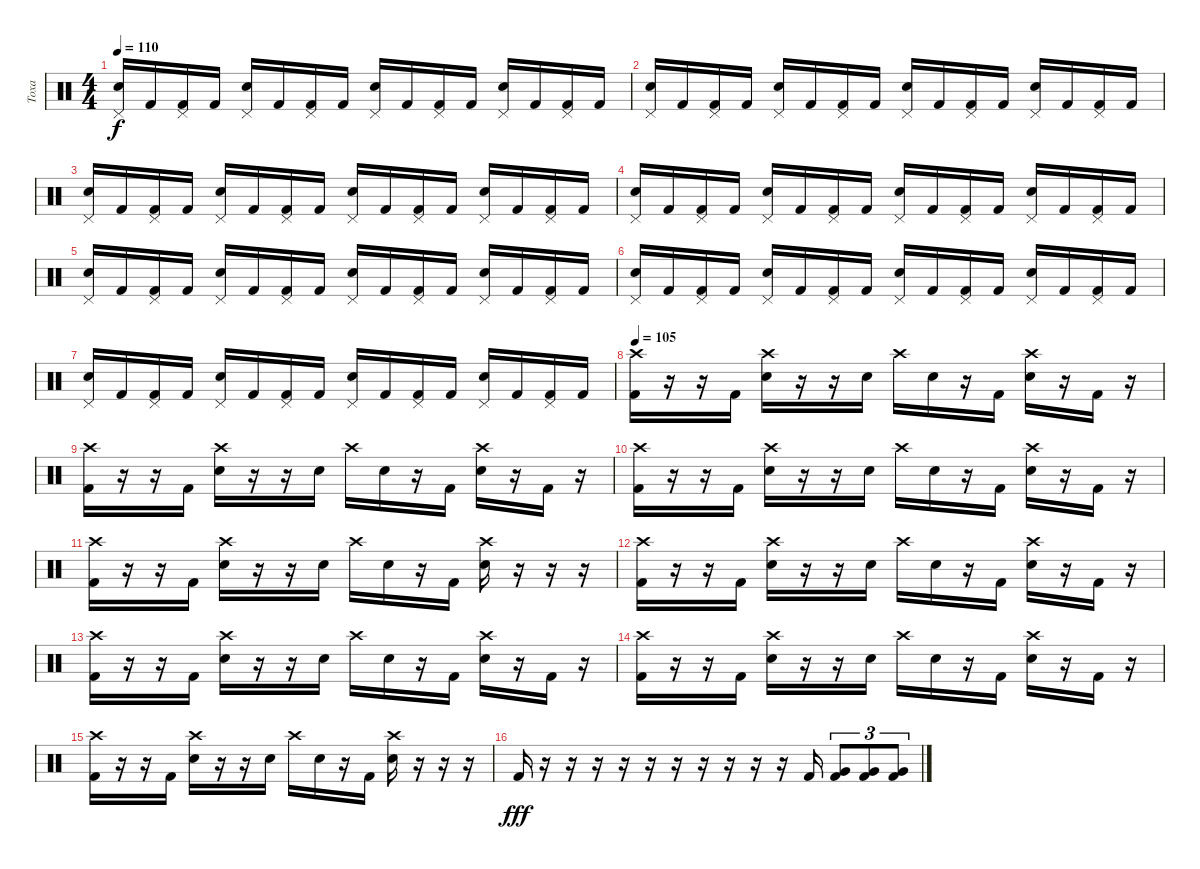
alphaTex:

\track ("Toxa" "Toxa") {instrument percussion}
\staff {score}
\articulation defaults
\ts (4 4)
\tempo 110
\clef neutral
\ks c
("Pedal Hi-Hat (hit)" "Electric Snare (hit)").16{dy f} "Kick (hit) 2".16 ("Pedal Hi-Hat (hit)" "Kick (hit) 2").16 "Kick (hit) 2".16 ("Pedal Hi-Hat (hit)" "Electric Snare (hit)").16 "Kick (hit) 2".16 ("Pedal Hi-Hat (hit)" "Kick (hit) 2").16 "Kick (hit) 2".16 ("Pedal Hi-Hat (hit)" "Electric Snare (hit)").16 "Kick (hit) 2".16 ("Pedal Hi-Hat (hit)" "Kick (hit) 2").16 "Kick (hit) 2".16 ("Pedal Hi-Hat (hit)" "Electric Snare (hit)").16 "Kick (hit) 2".16 ("Pedal Hi-Hat (hit)" "Kick (hit) 2").16 "Kick (hit) 2".16 |
("Pedal Hi-Hat (hit)" "Electric Snare (hit)").16 "Kick (hit) 2".16 ("Pedal Hi-Hat (hit)" "Kick (hit) 2").16 "Kick (hit) 2".16 ("Pedal Hi-Hat (hit)" "Electric Snare (hit)").16 "Kick (hit) 2".16 ("Pedal Hi-Hat (hit)" "Kick (hit) 2").16 "Kick (hit) 2".16 ("Pedal Hi-Hat (hit)" "Electric Snare (hit)").16 "Kick (hit) 2".16 ("Pedal Hi-Hat (hit)" "Kick (hit) 2").16 "Kick (hit) 2".16 ("Pedal Hi-Hat (hit)" "Electric Snare (hit)").16 "Kick (hit) 2".16 ("Pedal Hi-Hat (hit)" "Kick (hit) 2").16 "Kick (hit) 2".16 |
("Pedal Hi-Hat (hit)" "Electric Snare (hit)").16 "Kick (hit) 2".16 ("Pedal Hi-Hat (hit)" "Kick (hit) 2").16 "Kick (hit) 2".16 ("Pedal Hi-Hat (hit)" "Electric Snare (hit)").16 "Kick (hit) 2".16 ("Pedal Hi-Hat (hit)" "Kick (hit) 2").16 "Kick (hit) 2".16 ("Pedal Hi-Hat (hit)" "Electric Snare (hit)").16 "Kick (hit) 2".16 ("Pedal Hi-Hat (hit)" "Kick (hit) 2").16 "Kick (hit) 2".16 ("Pedal Hi-Hat (hit)" "Electric Snare (hit)").16 "Kick (hit) 2".16 ("Pedal Hi-Hat (hit)" "Kick (hit) 2").16 "Kick (hit) 2".16 |
("Pedal Hi-Hat (hit)" "Electric Snare (hit)").16 "Kick (hit) 2".16 ("Pedal Hi-Hat (hit)" "Kick (hit) 2").16 "Kick (hit) 2".16 ("Pedal Hi-Hat (hit)" "Electric Snare (hit)").16 "Kick (hit) 2".16 ("Pedal Hi-Hat (hit)" "Kick (hit) 2").16 "Kick (hit) 2".16 ("Pedal Hi-Hat (hit)" "Electric Snare (hit)").16 "Kick (hit) 2".16 ("Pedal Hi-Hat (hit)" "Kick (hit) 2").16 "Kick (hit) 2".16 ("Pedal Hi-Hat (hit)" "Electric Snare (hit)").16 "Kick (hit) 2".16 ("Pedal Hi-Hat (hit)" "Kick (hit) 2").16 "Kick (hit) 2".16 |
("Pedal Hi-Hat (hit)" "Electric Snare (hit)").16 "Kick (hit) 2".16 ("Pedal Hi-Hat (hit)" "Kick (hit) 2").16 "Kick (hit) 2".16 ("Pedal Hi-Hat (hit)" "Electric Snare (hit)").16 "Kick (hit) 2".16 ("Pedal Hi-Hat (hit)" "Kick (hit) 2").16 "Kick (hit) 2".16 ("Pedal Hi-Hat (hit)" "Electric Snare (hit)").16 "Kick (hit) 2".16 ("Pedal Hi-Hat (hit)" "Kick (hit) 2").16 "Kick (hit) 2".16 ("Pedal Hi-Hat (hit)" "Electric Snare (hit)").16 "Kick (hit) 2".16 ("Pedal Hi-Hat (hit)" "Kick (hit) 2").16 "Kick (hit) 2".16 |
("Pedal Hi-Hat (hit)" "Electric Snare (hit)").16 "Kick (hit) 2".16 ("Pedal Hi-Hat (hit)" "Kick (hit) 2").16 "Kick (hit) 2".16 ("Pedal Hi-Hat (hit)" "Electric Snare (hit)").16 "Kick (hit) 2".16 ("Pedal Hi-Hat (hit)" "Kick (hit) 2").16 "Kick (hit) 2".16 ("Pedal Hi-Hat (hit)" "Electric Snare (hit)").16 "Kick (hit) 2".16 ("Pedal Hi-Hat (hit)" "Kick (hit) 2").16 "Kick (hit) 2".16 ("Pedal Hi-Hat (hit)" "Electric Snare (hit)").16 "Kick (hit) 2".16 ("Pedal Hi-Hat (hit)" "Kick (hit) 2").16 "Kick (hit) 2".16 |
("Pedal Hi-Hat (hit)" "Electric Snare (hit)").16 "Kick (hit) 2".16 ("Pedal Hi-Hat (hit)" "Kick (hit) 2").16 "Kick (hit) 2".16 ("Pedal Hi-Hat (hit)" "Electric Snare (hit)").16 "Kick (hit) 2".16 ("Pedal Hi-Hat (hit)" "Kick (hit) 2").16 "Kick (hit) 2".16 ("Pedal Hi-Hat (hit)" "Electric Snare (hit)").16 "Kick (hit) 2".16 ("Pedal Hi-Hat (hit)" "Kick (hit) 2").16 "Kick (hit) 2".16 ("Pedal Hi-Hat (hit)" "Electric Snare (hit)").16 "Kick (hit) 2".16 ("Pedal Hi-Hat (hit)" "Kick (hit) 2").16 "Kick (hit) 2".16 |
\tempo 105
("Crash high (hit)" "Kick (hit) 2").16 r.16 r.16 "Kick (hit) 2".16 ("Crash high (hit)" "Electric Snare (hit)").16 r.16 r.16 "Electric Snare (hit)".16 "Crash high (hit)".16 "Electric Snare (hit)".16 r.16 "Kick (hit) 2".16 ("Crash high (hit)" "Electric Snare (hit)").16 r.16 "Kick (hit) 2".16 r.16 |
("Crash high (hit)" "Kick (hit) 2").16 r.16 r.16 "Kick (hit) 2".16 ("Crash high (hit)" "Electric Snare (hit)").16 r.16 r.16 "Electric Snare (hit)".16 "Crash high (hit)".16 "Electric Snare (hit)".16 r.16 "Kick (hit) 2".16 ("Crash high (hit)" "Electric Snare (hit)").16 r.16 "Kick (hit) 2".16 r.16 |
("Crash high (hit)" "Kick (hit) 2").16 r.16 r.16 "Kick (hit) 2".16 ("Crash high (hit)" "Electric Snare (hit)").16 r.16 r.16 "Electric Snare (hit)".16 "Crash high (hit)".16 "Electric Snare (hit)".16 r.16 "Kick (hit) 2".16 ("Crash high (hit)" "Electric Snare (hit)").16 r.16 "Kick (hit) 2".16 r.16 |
("Crash high (hit)" "Kick (hit) 2").16 r.16 r.16 "Kick (hit) 2".16 ("Crash high (hit)" "Electric Snare (hit)").16 r.16 r.16 "Electric Snare (hit)".16 "Crash high (hit)".16 "Electric Snare (hit)".16 r.16 "Kick (hit) 2".16 ("Crash high (hit)" "Electric Snare (hit)").16 r.16 r.16 r.16 |
("Crash high (hit)" "Kick (hit) 2").16 r.16 r.16 "Kick (hit) 2".16 ("Crash high (hit)" "Electric Snare (hit)").16 r.16 r.16 "Electric Snare (hit)".16 "Crash high (hit)".16 "Electric Snare (hit)".16 r.16 "Kick (hit) 2".16 ("Crash high (hit)" "Electric Snare (hit)").16 r.16 "Kick (hit) 2".16 r.16 |
("Crash high (hit)" "Kick (hit) 2").16 r.16 r.16 "Kick (hit) 2".16 ("Crash high (hit)" "Electric Snare (hit)").16 r.16 r.16 "Electric Snare (hit)".16 "Crash high (hit)".16 "Electric Snare (hit)".16 r.16 "Kick (hit) 2".16 ("Crash high (hit)" "Electric Snare (hit)").16 r.16 "Kick (hit) 2".16 r.16 |
("Crash high (hit)" "Kick (hit) 2").16 r.16 r.16 "Kick (hit) 2".16 ("Crash high (hit)" "Electric Snare (hit)").16 r.16 r.16 "Electric Snare (hit)".16 "Crash high (hit)".16 "Electric Snare (hit)".16 r.16 "Kick (hit) 2".16 ("Crash high (hit)" "Electric Snare (hit)").16 r.16 "Kick (hit) 2".16 r.16 |
("Crash high (hit)" "Kick (hit) 2").16 r.16 r.16 "Kick (hit) 2".16 ("Crash high (hit)" "Electric Snare (hit)").16 r.16 r.16 "Electric Snare (hit)".16 "Crash high (hit)".16 "Electric Snare (hit)".16 r.16 "Kick (hit) 2".16 ("Crash high (hit)" "Electric Snare (hit)").16 r.16 r.16 r.16 |
"Kick (hit) 2".16{dy fff} r.16 r.16 r.16 r.16 r.16 r.16 r.16 r.16 r.16 r.16 "Kick (hit) 2".16 ("Very Low Tom (hit)" "Kick (hit) 2").8{tu (3 2)} ("Very Low Tom (hit)" "Kick (hit) 2").8{tu (3 2)} ("Very Low Tom (hit)" "Kick (hit) 2").8{tu (3 2)}
